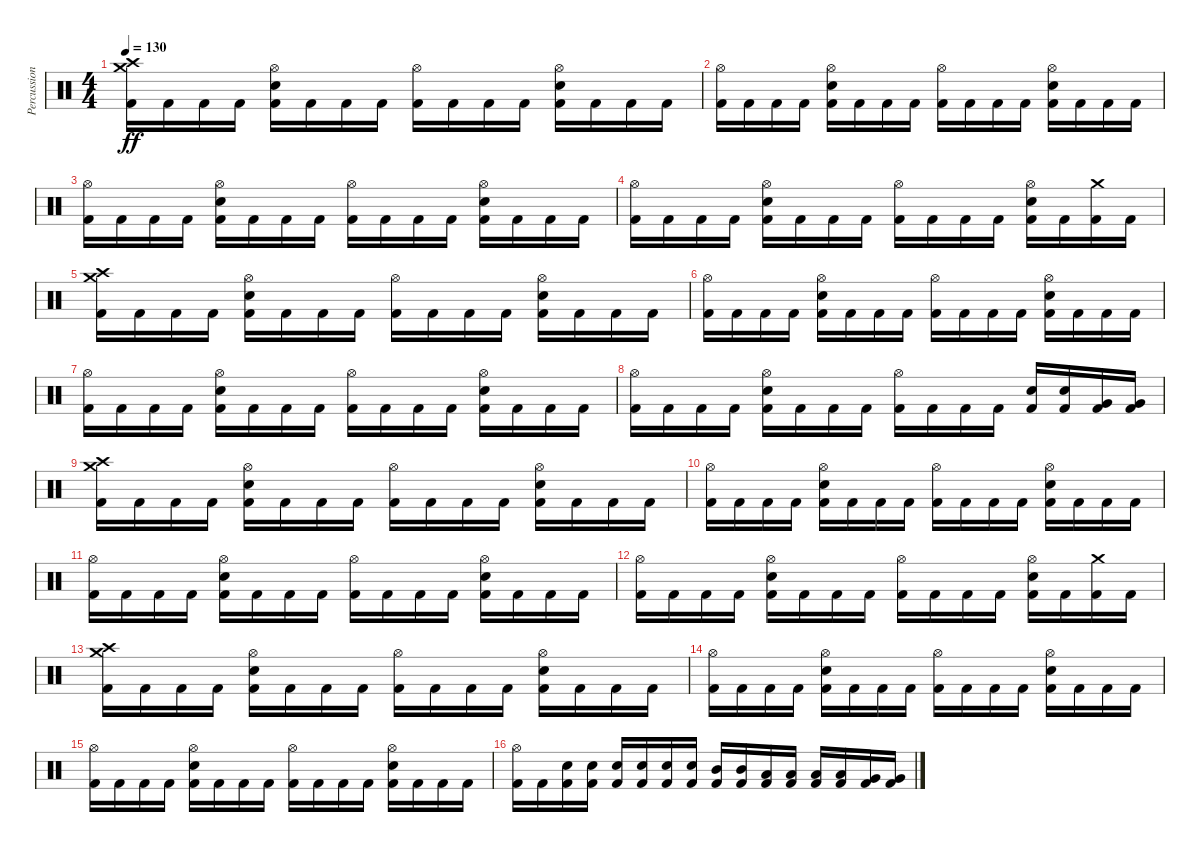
\track ("Percussion" "Percussion") {instrument percussion}
\staff {score}
\articulation defaults
\ts (4 4)
\tempo 130
\clef neutral
\ks c
("Kick (hit) 2" "Crash high (hit)" "Crash medium (hit)").16{dy ff} "Kick (hit) 2".16 "Kick (hit) 2".16 "Kick (hit) 2".16 ("Kick (hit) 2" "Electric Snare (hit)" "Hi-Hat (open)").16 "Kick (hit) 2".16 "Kick (hit) 2".16 "Kick (hit) 2".16 ("Kick (hit) 2" "Hi-Hat (open)").16 "Kick (hit) 2".16 "Kick (hit) 2".16 "Kick (hit) 2".16 ("Kick (hit) 2" "Electric Snare (hit)" "Hi-Hat (open)").16 "Kick (hit) 2".16 "Kick (hit) 2".16 "Kick (hit) 2".16 |
("Kick (hit) 2" "Hi-Hat (open)").16 "Kick (hit) 2".16 "Kick (hit) 2".16 "Kick (hit) 2".16 ("Kick (hit) 2" "Electric Snare (hit)" "Hi-Hat (open)").16 "Kick (hit) 2".16 "Kick (hit) 2".16 "Kick (hit) 2".16 ("Kick (hit) 2" "Hi-Hat (open)").16 "Kick (hit) 2".16 "Kick (hit) 2".16 "Kick (hit) 2".16 ("Kick (hit) 2" "Electric Snare (hit)" "Hi-Hat (open)").16 "Kick (hit) 2".16 "Kick (hit) 2".16 "Kick (hit) 2".16 |
("Kick (hit) 2" "Hi-Hat (open)").16 "Kick (hit) 2".16 "Kick (hit) 2".16 "Kick (hit) 2".16 ("Kick (hit) 2" "Electric Snare (hit)" "Hi-Hat (open)").16 "Kick (hit) 2".16 "Kick (hit) 2".16 "Kick (hit) 2".16 ("Kick (hit) 2" "Hi-Hat (open)").16 "Kick (hit) 2".16 "Kick (hit) 2".16 "Kick (hit) 2".16 ("Kick (hit) 2" "Electric Snare (hit)" "Hi-Hat (open)").16 "Kick (hit) 2".16 "Kick (hit) 2".16 "Kick (hit) 2".16 |
("Kick (hit) 2" "Hi-Hat (open)").16 "Kick (hit) 2".16 "Kick (hit) 2".16 "Kick (hit) 2".16 ("Kick (hit) 2" "Electric Snare (hit)" "Hi-Hat (open)").16 "Kick (hit) 2".16 "Kick (hit) 2".16 "Kick (hit) 2".16 ("Kick (hit) 2" "Hi-Hat (open)").16 "Kick (hit) 2".16 "Kick (hit) 2".16 "Kick (hit) 2".16 ("Kick (hit) 2" "Electric Snare (hit)" "Hi-Hat (open)").16 "Kick (hit) 2".16 ("Kick (hit) 2" "Crash medium (hit)").16 "Kick (hit) 2".16 |
("Kick (hit) 2" "Crash high (hit)" "Crash medium (hit)").16 "Kick (hit) 2".16 "Kick (hit) 2".16 "Kick (hit) 2".16 ("Kick (hit) 2" "Electric Snare (hit)" "Hi-Hat (open)").16 "Kick (hit) 2".16 "Kick (hit) 2".16 "Kick (hit) 2".16 ("Kick (hit) 2" "Hi-Hat (open)").16 "Kick (hit) 2".16 "Kick (hit) 2".16 "Kick (hit) 2".16 ("Kick (hit) 2" "Electric Snare (hit)" "Hi-Hat (open)").16 "Kick (hit) 2".16 "Kick (hit) 2".16 "Kick (hit) 2".16 |
("Kick (hit) 2" "Hi-Hat (open)").16 "Kick (hit) 2".16 "Kick (hit) 2".16 "Kick (hit) 2".16 ("Kick (hit) 2" "Electric Snare (hit)" "Hi-Hat (open)").16 "Kick (hit) 2".16 "Kick (hit) 2".16 "Kick (hit) 2".16 ("Kick (hit) 2" "Hi-Hat (open)").16 "Kick (hit) 2".16 "Kick (hit) 2".16 "Kick (hit) 2".16 ("Kick (hit) 2" "Electric Snare (hit)" "Hi-Hat (open)").16 "Kick (hit) 2".16 "Kick (hit) 2".16 "Kick (hit) 2".16 |
("Kick (hit) 2" "Hi-Hat (open)").16 "Kick (hit) 2".16 "Kick (hit) 2".16 "Kick (hit) 2".16 ("Kick (hit) 2" "Electric Snare (hit)" "Hi-Hat (open)").16 "Kick (hit) 2".16 "Kick (hit) 2".16 "Kick (hit) 2".16 ("Kick (hit) 2" "Hi-Hat (open)").16 "Kick (hit) 2".16 "Kick (hit) 2".16 "Kick (hit) 2".16 ("Kick (hit) 2" "Electric Snare (hit)" "Hi-Hat (open)").16 "Kick (hit) 2".16 "Kick (hit) 2".16 "Kick (hit) 2".16 |
("Kick (hit) 2" "Hi-Hat (open)").16 "Kick (hit) 2".16 "Kick (hit) 2".16 "Kick (hit) 2".16 ("Kick (hit) 2" "Electric Snare (hit)" "Hi-Hat (open)").16 "Kick (hit) 2".16 "Kick (hit) 2".16 "Kick (hit) 2".16 ("Kick (hit) 2" "Hi-Hat (open)").16 "Kick (hit) 2".16 "Kick (hit) 2".16 "Kick (hit) 2".16 ("Kick (hit) 2" "Electric Snare (hit)").16 ("Kick (hit) 2" "Electric Snare (hit)").16 ("Kick (hit) 2" "Very Low Tom (hit)").16 ("Kick (hit) 2" "Very Low Tom (hit)").16 |
("Kick (hit) 2" "Crash high (hit)" "Crash medium (hit)").16 "Kick (hit) 2".16 "Kick (hit) 2".16 "Kick (hit) 2".16 ("Kick (hit) 2" "Electric Snare (hit)" "Hi-Hat (open)").16 "Kick (hit) 2".16 "Kick (hit) 2".16 "Kick (hit) 2".16 ("Kick (hit) 2" "Hi-Hat (open)").16 "Kick (hit) 2".16 "Kick (hit) 2".16 "Kick (hit) 2".16 ("Kick (hit) 2" "Electric Snare (hit)" "Hi-Hat (open)").16 "Kick (hit) 2".16 "Kick (hit) 2".16 "Kick (hit) 2".16 |
("Kick (hit) 2" "Hi-Hat (open)").16 "Kick (hit) 2".16 "Kick (hit) 2".16 "Kick (hit) 2".16 ("Kick (hit) 2" "Electric Snare (hit)" "Hi-Hat (open)").16 "Kick (hit) 2".16 "Kick (hit) 2".16 "Kick (hit) 2".16 ("Kick (hit) 2" "Hi-Hat (open)").16 "Kick (hit) 2".16 "Kick (hit) 2".16 "Kick (hit) 2".16 ("Kick (hit) 2" "Electric Snare (hit)" "Hi-Hat (open)").16 "Kick (hit) 2".16 "Kick (hit) 2".16 "Kick (hit) 2".16 |
("Kick (hit) 2" "Hi-Hat (open)").16 "Kick (hit) 2".16 "Kick (hit) 2".16 "Kick (hit) 2".16 ("Kick (hit) 2" "Electric Snare (hit)" "Hi-Hat (open)").16 "Kick (hit) 2".16 "Kick (hit) 2".16 "Kick (hit) 2".16 ("Kick (hit) 2" "Hi-Hat (open)").16 "Kick (hit) 2".16 "Kick (hit) 2".16 "Kick (hit) 2".16 ("Kick (hit) 2" "Electric Snare (hit)" "Hi-Hat (open)").16 "Kick (hit) 2".16 "Kick (hit) 2".16 "Kick (hit) 2".16 |
("Kick (hit) 2" "Hi-Hat (open)").16 "Kick (hit) 2".16 "Kick (hit) 2".16 "Kick (hit) 2".16 ("Kick (hit) 2" "Electric Snare (hit)" "Hi-Hat (open)").16 "Kick (hit) 2".16 "Kick (hit) 2".16 "Kick (hit) 2".16 ("Kick (hit) 2" "Hi-Hat (open)").16 "Kick (hit) 2".16 "Kick (hit) 2".16 "Kick (hit) 2".16 ("Kick (hit) 2" "Electric Snare (hit)" "Hi-Hat (open)").16 "Kick (hit) 2".16 ("Kick (hit) 2" "Crash medium (hit)").16 "Kick (hit) 2".16 |
("Kick (hit) 2" "Crash high (hit)" "Crash medium (hit)").16 "Kick (hit) 2".16 "Kick (hit) 2".16 "Kick (hit) 2".16 ("Kick (hit) 2" "Electric Snare (hit)" "Hi-Hat (open)").16 "Kick (hit) 2".16 "Kick (hit) 2".16 "Kick (hit) 2".16 ("Kick (hit) 2" "Hi-Hat (open)").16 "Kick (hit) 2".16 "Kick (hit) 2".16 "Kick (hit) 2".16 ("Kick (hit) 2" "Electric Snare (hit)" "Hi-Hat (open)").16 "Kick (hit) 2".16 "Kick (hit) 2".16 "Kick (hit) 2".16 |
("Kick (hit) 2" "Hi-Hat (open)").16 "Kick (hit) 2".16 "Kick (hit) 2".16 "Kick (hit) 2".16 ("Kick (hit) 2" "Electric Snare (hit)" "Hi-Hat (open)").16 "Kick (hit) 2".16 "Kick (hit) 2".16 "Kick (hit) 2".16 ("Kick (hit) 2" "Hi-Hat (open)").16 "Kick (hit) 2".16 "Kick (hit) 2".16 "Kick (hit) 2".16 ("Kick (hit) 2" "Electric Snare (hit)" "Hi-Hat (open)").16 "Kick (hit) 2".16 "Kick (hit) 2".16 "Kick (hit) 2".16 |
("Kick (hit) 2" "Hi-Hat (open)").16 "Kick (hit) 2".16 "Kick (hit) 2".16 "Kick (hit) 2".16 ("Kick (hit) 2" "Electric Snare (hit)" "Hi-Hat (open)").16 "Kick (hit) 2".16 "Kick (hit) 2".16 "Kick (hit) 2".16 ("Kick (hit) 2" "Hi-Hat (open)").16 "Kick (hit) 2".16 "Kick (hit) 2".16 "Kick (hit) 2".16 ("Kick (hit) 2" "Electric Snare (hit)" "Hi-Hat (open)").16 "Kick (hit) 2".16 "Kick (hit) 2".16 "Kick (hit) 2".16 |
("Kick (hit) 2" "Hi-Hat (open)").16 "Kick (hit) 2".16 ("Kick (hit) 2" "Electric Snare (hit)").16 ("Kick (hit) 2" "Electric Snare (hit)").16 ("Kick (hit) 2" "Electric Snare (hit)").16 ("Kick (hit) 2" "Electric Snare (hit)").16 ("Kick (hit) 2" "Electric Snare (hit)").16 ("Kick (hit) 2" "Electric Snare (hit)").16 ("Kick (hit) 2" "Mid Tom (hit)").16 ("Kick (hit) 2" "Mid Tom (hit)").16 ("Kick (hit) 2" "Low Tom (hit)").16 ("Kick (hit) 2" "Low Tom (hit)").16 ("Kick (hit) 2" "Low Tom (hit)").16 ("Kick (hit) 2" "Low Tom (hit)").16 ("Kick (hit) 2" "Very Low Tom (hit)").16 ("Kick (hit) 2" "Very Low Tom (hit)").16
